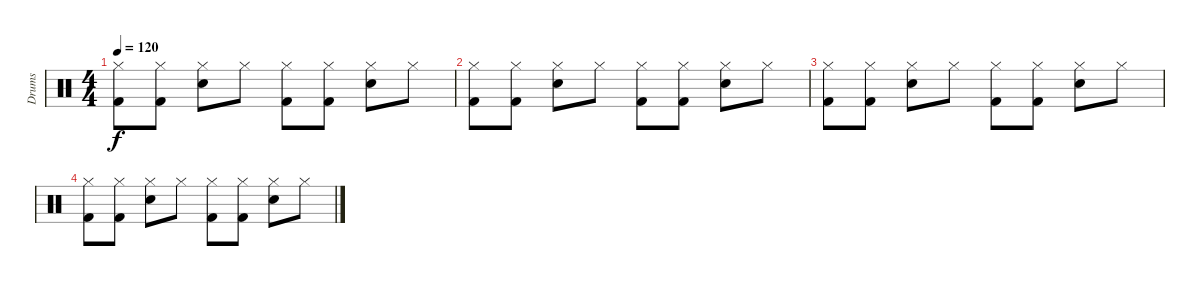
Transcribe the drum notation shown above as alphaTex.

\track ("Drums" "Drums") {instrument percussion}
\staff {score}
\articulation defaults
\ts (4 4)
\tempo 120
\clef neutral
\ks c
("Kick (hit) 2" "Hi-Hat (closed)").8{dy f} ("Kick (hit) 2" "Hi-Hat (closed)").8 ("Electric Snare (hit)" "Hi-Hat (closed)").8 "Hi-Hat (closed)".8 ("Kick (hit) 2" "Hi-Hat (closed)").8 ("Kick (hit) 2" "Hi-Hat (closed)").8 ("Electric Snare (hit)" "Hi-Hat (closed)").8 "Hi-Hat (closed)".8 |
("Kick (hit) 2" "Hi-Hat (closed)").8 ("Kick (hit) 2" "Hi-Hat (closed)").8 ("Electric Snare (hit)" "Hi-Hat (closed)").8 "Hi-Hat (closed)".8 ("Kick (hit) 2" "Hi-Hat (closed)").8 ("Kick (hit) 2" "Hi-Hat (closed)").8 ("Electric Snare (hit)" "Hi-Hat (closed)").8 "Hi-Hat (closed)".8 |
("Kick (hit) 2" "Hi-Hat (closed)").8 ("Kick (hit) 2" "Hi-Hat (closed)").8 ("Electric Snare (hit)" "Hi-Hat (closed)").8 "Hi-Hat (closed)".8 ("Kick (hit) 2" "Hi-Hat (closed)").8 ("Kick (hit) 2" "Hi-Hat (closed)").8 ("Electric Snare (hit)" "Hi-Hat (closed)").8 "Hi-Hat (closed)".8 |
("Kick (hit) 2" "Hi-Hat (closed)").8 ("Kick (hit) 2" "Hi-Hat (closed)").8 ("Electric Snare (hit)" "Hi-Hat (closed)").8 "Hi-Hat (closed)".8 ("Kick (hit) 2" "Hi-Hat (closed)").8 ("Kick (hit) 2" "Hi-Hat (closed)").8 ("Electric Snare (hit)" "Hi-Hat (closed)").8 "Hi-Hat (closed)".8
